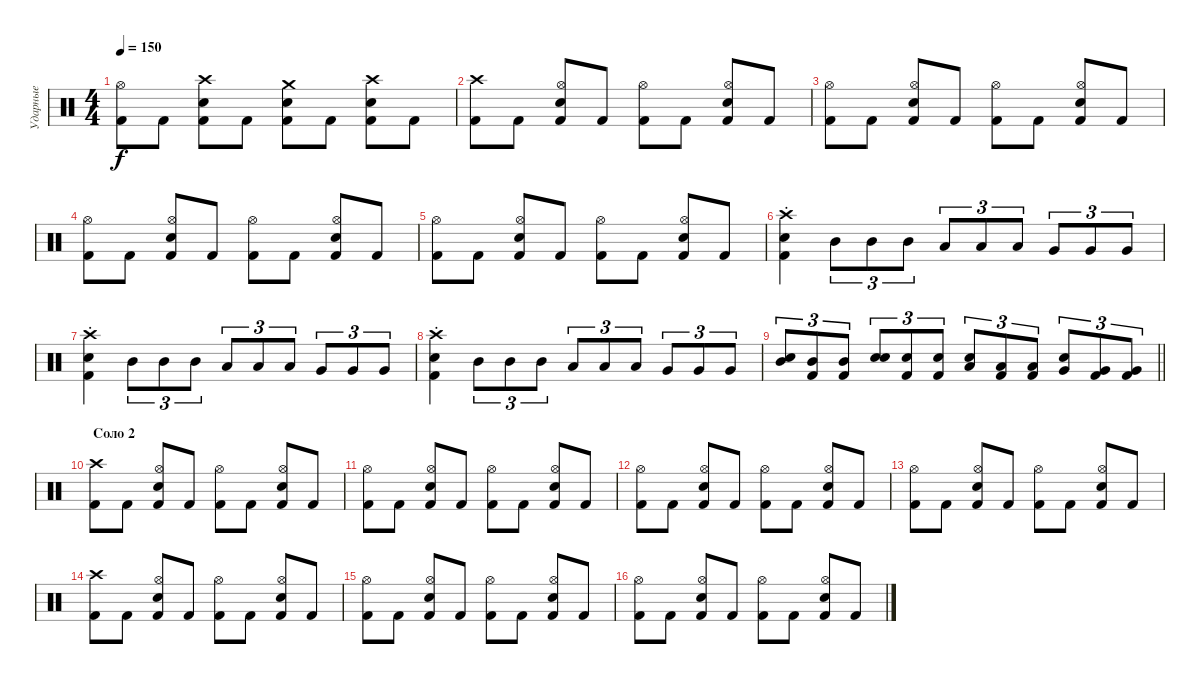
\track ("Ударные" "Ударные") {instrument percussion}
\staff {score}
\articulation defaults
\ts (4 4)
\tempo 150
\clef neutral
\ks c
("Kick (hit) 2" "Hi-Hat (open)").8{dy f} "Kick (hit) 2".8 ("Snare (hit) 2" "Kick (hit) 2" "Crash high (hit)").8 "Kick (hit) 2".8 ("Kick (hit) 2" "Snare (hit) 2" "Crash medium (hit)").8 "Kick (hit) 2".8 ("Snare (hit) 2" "Kick (hit) 2" "Crash high (hit)").8 "Kick (hit) 2".8 |
("Kick (hit) 2" "Crash high (hit)").8 "Kick (hit) 2".8 ("Snare (hit) 2" "Kick (hit) 2" "Hi-Hat (open)").8 "Kick (hit) 2".8 ("Kick (hit) 2" "Hi-Hat (open)").8 "Kick (hit) 2".8 ("Snare (hit) 2" "Kick (hit) 2" "Hi-Hat (open)").8 "Kick (hit) 2".8 |
("Kick (hit) 2" "Hi-Hat (open)").8 "Kick (hit) 2".8 ("Snare (hit) 2" "Kick (hit) 2" "Hi-Hat (open)").8 "Kick (hit) 2".8 ("Kick (hit) 2" "Hi-Hat (open)").8 "Kick (hit) 2".8 ("Snare (hit) 2" "Kick (hit) 2" "Hi-Hat (open)").8 "Kick (hit) 2".8 |
("Kick (hit) 2" "Hi-Hat (open)").8 "Kick (hit) 2".8 ("Snare (hit) 2" "Kick (hit) 2" "Hi-Hat (open)").8 "Kick (hit) 2".8 ("Kick (hit) 2" "Hi-Hat (open)").8 "Kick (hit) 2".8 ("Snare (hit) 2" "Kick (hit) 2" "Hi-Hat (open)").8 "Kick (hit) 2".8 |
("Kick (hit) 2" "Hi-Hat (open)").8 "Kick (hit) 2".8 ("Snare (hit) 2" "Kick (hit) 2" "Hi-Hat (open)").8 "Kick (hit) 2".8 ("Kick (hit) 2" "Hi-Hat (open)").8 "Kick (hit) 2".8 ("Snare (hit) 2" "Kick (hit) 2" "Hi-Hat (open)").8 "Kick (hit) 2".8 |
("Kick (hit) 2"{st} "Snare (hit) 2"{st} "Crash high (hit)"{st}).4 "Mid Tom (hit)".8{tu (3 2)} "Mid Tom (hit)".8{tu (3 2)} "Mid Tom (hit)".8{tu (3 2)} "Low Tom (hit)".8{tu (3 2)} "Low Tom (hit)".8{tu (3 2)} "Low Tom (hit)".8{tu (3 2)} "Very Low Tom (hit)".8{tu (3 2)} "Very Low Tom (hit)".8{tu (3 2)} "Very Low Tom (hit)".8{tu (3 2)} |
("Kick (hit) 2"{st} "Snare (hit) 2"{st} "Crash high (hit)"{st}).4 "Mid Tom (hit)".8{tu (3 2)} "Mid Tom (hit)".8{tu (3 2)} "Mid Tom (hit)".8{tu (3 2)} "Low Tom (hit)".8{tu (3 2)} "Low Tom (hit)".8{tu (3 2)} "Low Tom (hit)".8{tu (3 2)} "Very Low Tom (hit)".8{tu (3 2)} "Very Low Tom (hit)".8{tu (3 2)} "Very Low Tom (hit)".8{tu (3 2)} |
("Kick (hit) 2"{st} "Snare (hit) 2"{st} "Crash high (hit)"{st}).4 "Mid Tom (hit)".8{tu (3 2)} "Mid Tom (hit)".8{tu (3 2)} "Mid Tom (hit)".8{tu (3 2)} "Low Tom (hit)".8{tu (3 2)} "Low Tom (hit)".8{tu (3 2)} "Low Tom (hit)".8{tu (3 2)} "Very Low Tom (hit)".8{tu (3 2)} "Very Low Tom (hit)".8{tu (3 2)} "Very Low Tom (hit)".8{tu (3 2)} |
\barLineRight lightlight
("Mid Tom (hit)" "Snare (hit) 2").8{tu (3 2)} ("Mid Tom (hit)" "Kick (hit) 2").8{tu (3 2)} ("Mid Tom (hit)" "Kick (hit) 2").8{tu (3 2)} ("Electric Snare (hit)" "Snare (hit) 2").8{tu (3 2)} ("Electric Snare (hit)" "Kick (hit) 2").8{tu (3 2)} ("Electric Snare (hit)" "Kick (hit) 2").8{tu (3 2)} ("Low Tom (hit)" "Snare (hit) 2").8{tu (3 2)} ("Low Tom (hit)" "Kick (hit) 2").8{tu (3 2)} ("Low Tom (hit)" "Kick (hit) 2").8{tu (3 2)} ("Very Low Tom (hit)" "Snare (hit) 2").8{tu (3 2)} ("Very Low Tom (hit)" "Kick (hit) 2").8{tu (3 2)} ("Very Low Tom (hit)" "Kick (hit) 2").8{tu (3 2)} |
\section ("" " Соло 2")
("Kick (hit) 2" "Crash high (hit)").8 "Kick (hit) 2".8 ("Snare (hit) 2" "Kick (hit) 2" "Hi-Hat (open)").8 "Kick (hit) 2".8 ("Kick (hit) 2" "Hi-Hat (open)").8 "Kick (hit) 2".8 ("Snare (hit) 2" "Kick (hit) 2" "Hi-Hat (open)").8 "Kick (hit) 2".8 |
("Kick (hit) 2" "Hi-Hat (open)").8 "Kick (hit) 2".8 ("Snare (hit) 2" "Kick (hit) 2" "Hi-Hat (open)").8 "Kick (hit) 2".8 ("Kick (hit) 2" "Hi-Hat (open)").8 "Kick (hit) 2".8 ("Snare (hit) 2" "Kick (hit) 2" "Hi-Hat (open)").8 "Kick (hit) 2".8 |
("Kick (hit) 2" "Hi-Hat (open)").8 "Kick (hit) 2".8 ("Snare (hit) 2" "Kick (hit) 2" "Hi-Hat (open)").8 "Kick (hit) 2".8 ("Kick (hit) 2" "Hi-Hat (open)").8 "Kick (hit) 2".8 ("Snare (hit) 2" "Kick (hit) 2" "Hi-Hat (open)").8 "Kick (hit) 2".8 |
("Kick (hit) 2" "Hi-Hat (open)").8 "Kick (hit) 2".8 ("Snare (hit) 2" "Kick (hit) 2" "Hi-Hat (open)").8 "Kick (hit) 2".8 ("Kick (hit) 2" "Hi-Hat (open)").8 "Kick (hit) 2".8 ("Snare (hit) 2" "Kick (hit) 2" "Hi-Hat (open)").8 "Kick (hit) 2".8 |
("Kick (hit) 2" "Crash high (hit)").8 "Kick (hit) 2".8 ("Snare (hit) 2" "Kick (hit) 2" "Hi-Hat (open)").8 "Kick (hit) 2".8 ("Kick (hit) 2" "Hi-Hat (open)").8 "Kick (hit) 2".8 ("Snare (hit) 2" "Kick (hit) 2" "Hi-Hat (open)").8 "Kick (hit) 2".8 |
("Kick (hit) 2" "Hi-Hat (open)").8 "Kick (hit) 2".8 ("Snare (hit) 2" "Kick (hit) 2" "Hi-Hat (open)").8 "Kick (hit) 2".8 ("Kick (hit) 2" "Hi-Hat (open)").8 "Kick (hit) 2".8 ("Snare (hit) 2" "Kick (hit) 2" "Hi-Hat (open)").8 "Kick (hit) 2".8 |
("Kick (hit) 2" "Hi-Hat (open)").8 "Kick (hit) 2".8 ("Snare (hit) 2" "Kick (hit) 2" "Hi-Hat (open)").8 "Kick (hit) 2".8 ("Kick (hit) 2" "Hi-Hat (open)").8 "Kick (hit) 2".8 ("Snare (hit) 2" "Kick (hit) 2" "Hi-Hat (open)").8 "Kick (hit) 2".8
